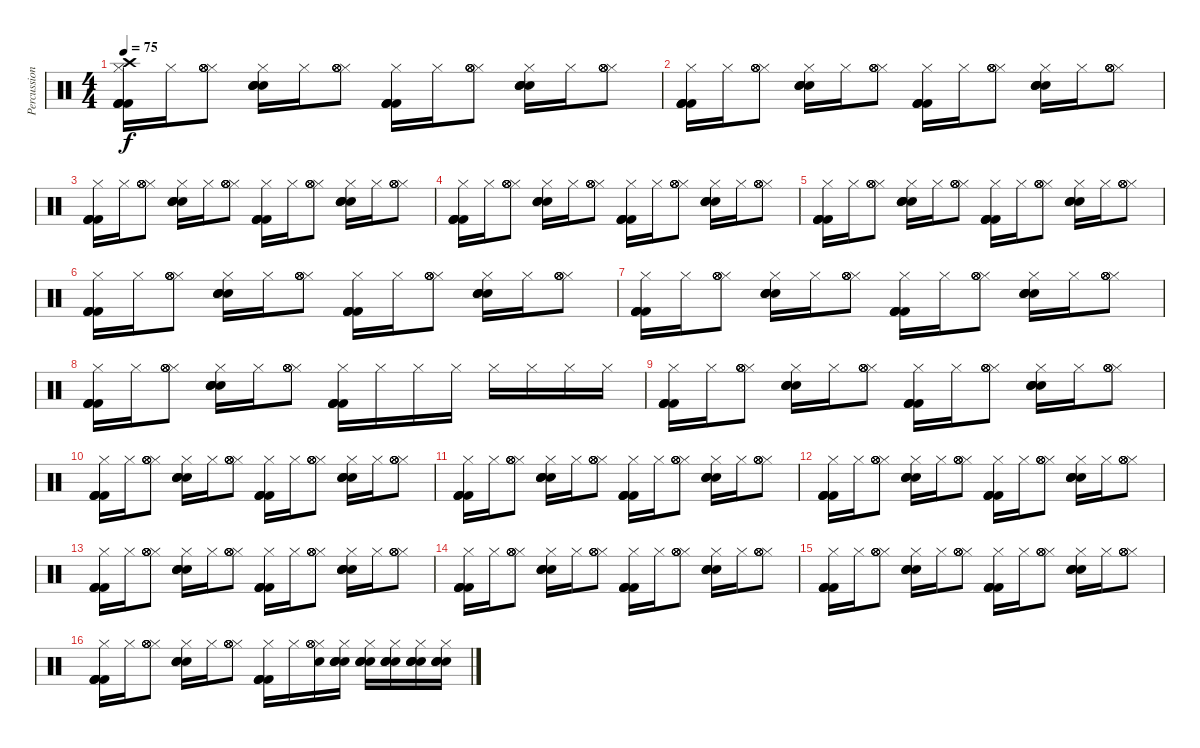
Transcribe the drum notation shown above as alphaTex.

\track ("Percussion" "Percussion") {instrument percussion}
\staff {score}
\articulation defaults
\ts (4 4)
\tempo 75
\clef neutral
\ks c
("Hi-Hat (closed)" "Kick (hit) 2" "Kick (hit) 2" "Kick (hit) 2" "Kick (hit) 2" "Crash high (hit)").16{dy f} "Hi-Hat (closed)".16 ("Hi-Hat (closed)" "Hi-Hat (open)" "Hi-Hat (open)" "Hi-Hat (open)" "Hi-Hat (open)").8 ("Hi-Hat (closed)" "Electric Snare (hit)" "Electric Snare (hit)" "Electric Snare (hit)" "Electric Snare (hit)").16 "Hi-Hat (closed)".16 ("Hi-Hat (closed)" "Hi-Hat (open)" "Hi-Hat (open)" "Hi-Hat (open)" "Hi-Hat (open)").8 ("Hi-Hat (closed)" "Kick (hit) 2" "Kick (hit) 2" "Kick (hit) 2" "Kick (hit) 2").16 "Hi-Hat (closed)".16 ("Hi-Hat (closed)" "Hi-Hat (open)" "Hi-Hat (open)" "Hi-Hat (open)" "Hi-Hat (open)").8 ("Hi-Hat (closed)" "Electric Snare (hit)" "Electric Snare (hit)" "Electric Snare (hit)" "Electric Snare (hit)").16 "Hi-Hat (closed)".16 ("Hi-Hat (closed)" "Hi-Hat (open)" "Hi-Hat (open)" "Hi-Hat (open)" "Hi-Hat (open)").8 |
("Hi-Hat (closed)" "Kick (hit) 2" "Kick (hit) 2" "Kick (hit) 2" "Kick (hit) 2").16 "Hi-Hat (closed)".16 ("Hi-Hat (closed)" "Hi-Hat (open)" "Hi-Hat (open)" "Hi-Hat (open)" "Hi-Hat (open)").8 ("Hi-Hat (closed)" "Electric Snare (hit)" "Electric Snare (hit)" "Electric Snare (hit)" "Electric Snare (hit)").16 "Hi-Hat (closed)".16 ("Hi-Hat (closed)" "Hi-Hat (open)" "Hi-Hat (open)" "Hi-Hat (open)" "Hi-Hat (open)").8 ("Hi-Hat (closed)" "Kick (hit) 2" "Kick (hit) 2" "Kick (hit) 2" "Kick (hit) 2").16 "Hi-Hat (closed)".16 ("Hi-Hat (closed)" "Hi-Hat (open)" "Hi-Hat (open)" "Hi-Hat (open)" "Hi-Hat (open)").8 ("Hi-Hat (closed)" "Electric Snare (hit)" "Electric Snare (hit)" "Electric Snare (hit)" "Electric Snare (hit)").16 "Hi-Hat (closed)".16 ("Hi-Hat (closed)" "Hi-Hat (open)" "Hi-Hat (open)" "Hi-Hat (open)" "Hi-Hat (open)").8 |
("Hi-Hat (closed)" "Kick (hit) 2" "Kick (hit) 2" "Kick (hit) 2" "Kick (hit) 2").16 "Hi-Hat (closed)".16 ("Hi-Hat (closed)" "Hi-Hat (open)" "Hi-Hat (open)" "Hi-Hat (open)" "Hi-Hat (open)").8 ("Hi-Hat (closed)" "Electric Snare (hit)" "Electric Snare (hit)" "Electric Snare (hit)" "Electric Snare (hit)").16 "Hi-Hat (closed)".16 ("Hi-Hat (closed)" "Hi-Hat (open)" "Hi-Hat (open)" "Hi-Hat (open)" "Hi-Hat (open)").8 ("Hi-Hat (closed)" "Kick (hit) 2" "Kick (hit) 2" "Kick (hit) 2" "Kick (hit) 2").16 "Hi-Hat (closed)".16 ("Hi-Hat (closed)" "Hi-Hat (open)" "Hi-Hat (open)" "Hi-Hat (open)" "Hi-Hat (open)").8 ("Hi-Hat (closed)" "Electric Snare (hit)" "Electric Snare (hit)" "Electric Snare (hit)" "Electric Snare (hit)").16 "Hi-Hat (closed)".16 ("Hi-Hat (closed)" "Hi-Hat (open)" "Hi-Hat (open)" "Hi-Hat (open)" "Hi-Hat (open)").8 |
("Hi-Hat (closed)" "Kick (hit) 2" "Kick (hit) 2" "Kick (hit) 2" "Kick (hit) 2").16 "Hi-Hat (closed)".16 ("Hi-Hat (closed)" "Hi-Hat (open)" "Hi-Hat (open)" "Hi-Hat (open)" "Hi-Hat (open)").8 ("Hi-Hat (closed)" "Electric Snare (hit)" "Electric Snare (hit)" "Electric Snare (hit)" "Electric Snare (hit)").16 "Hi-Hat (closed)".16 ("Hi-Hat (closed)" "Hi-Hat (open)" "Hi-Hat (open)" "Hi-Hat (open)" "Hi-Hat (open)").8 ("Hi-Hat (closed)" "Kick (hit) 2" "Kick (hit) 2" "Kick (hit) 2" "Kick (hit) 2").16 "Hi-Hat (closed)".16 ("Hi-Hat (closed)" "Hi-Hat (open)" "Hi-Hat (open)" "Hi-Hat (open)" "Hi-Hat (open)").8 ("Hi-Hat (closed)" "Electric Snare (hit)" "Electric Snare (hit)" "Electric Snare (hit)" "Electric Snare (hit)").16 "Hi-Hat (closed)".16 ("Hi-Hat (closed)" "Hi-Hat (open)" "Hi-Hat (open)" "Hi-Hat (open)" "Hi-Hat (open)").8 |
("Hi-Hat (closed)" "Kick (hit) 2" "Kick (hit) 2" "Kick (hit) 2" "Kick (hit) 2").16 "Hi-Hat (closed)".16 ("Hi-Hat (closed)" "Hi-Hat (open)" "Hi-Hat (open)" "Hi-Hat (open)" "Hi-Hat (open)").8 ("Hi-Hat (closed)" "Electric Snare (hit)" "Electric Snare (hit)" "Electric Snare (hit)" "Electric Snare (hit)").16 "Hi-Hat (closed)".16 ("Hi-Hat (closed)" "Hi-Hat (open)" "Hi-Hat (open)" "Hi-Hat (open)" "Hi-Hat (open)").8 ("Hi-Hat (closed)" "Kick (hit) 2" "Kick (hit) 2" "Kick (hit) 2" "Kick (hit) 2").16 "Hi-Hat (closed)".16 ("Hi-Hat (closed)" "Hi-Hat (open)" "Hi-Hat (open)" "Hi-Hat (open)" "Hi-Hat (open)").8 ("Hi-Hat (closed)" "Electric Snare (hit)" "Electric Snare (hit)" "Electric Snare (hit)" "Electric Snare (hit)").16 "Hi-Hat (closed)".16 ("Hi-Hat (closed)" "Hi-Hat (open)" "Hi-Hat (open)" "Hi-Hat (open)" "Hi-Hat (open)").8 |
("Hi-Hat (closed)" "Kick (hit) 2" "Kick (hit) 2" "Kick (hit) 2" "Kick (hit) 2").16 "Hi-Hat (closed)".16 ("Hi-Hat (closed)" "Hi-Hat (open)" "Hi-Hat (open)" "Hi-Hat (open)" "Hi-Hat (open)").8 ("Hi-Hat (closed)" "Electric Snare (hit)" "Electric Snare (hit)" "Electric Snare (hit)" "Electric Snare (hit)").16 "Hi-Hat (closed)".16 ("Hi-Hat (closed)" "Hi-Hat (open)" "Hi-Hat (open)" "Hi-Hat (open)" "Hi-Hat (open)").8 ("Hi-Hat (closed)" "Kick (hit) 2" "Kick (hit) 2" "Kick (hit) 2" "Kick (hit) 2").16 "Hi-Hat (closed)".16 ("Hi-Hat (closed)" "Hi-Hat (open)" "Hi-Hat (open)" "Hi-Hat (open)" "Hi-Hat (open)").8 ("Hi-Hat (closed)" "Electric Snare (hit)" "Electric Snare (hit)" "Electric Snare (hit)" "Electric Snare (hit)").16 "Hi-Hat (closed)".16 ("Hi-Hat (closed)" "Hi-Hat (open)" "Hi-Hat (open)" "Hi-Hat (open)" "Hi-Hat (open)").8 |
("Hi-Hat (closed)" "Kick (hit) 2" "Kick (hit) 2" "Kick (hit) 2" "Kick (hit) 2").16 "Hi-Hat (closed)".16 ("Hi-Hat (closed)" "Hi-Hat (open)" "Hi-Hat (open)" "Hi-Hat (open)" "Hi-Hat (open)").8 ("Hi-Hat (closed)" "Electric Snare (hit)" "Electric Snare (hit)" "Electric Snare (hit)" "Electric Snare (hit)").16 "Hi-Hat (closed)".16 ("Hi-Hat (closed)" "Hi-Hat (open)" "Hi-Hat (open)" "Hi-Hat (open)" "Hi-Hat (open)").8 ("Hi-Hat (closed)" "Kick (hit) 2" "Kick (hit) 2" "Kick (hit) 2" "Kick (hit) 2").16 "Hi-Hat (closed)".16 ("Hi-Hat (closed)" "Hi-Hat (open)" "Hi-Hat (open)" "Hi-Hat (open)" "Hi-Hat (open)").8 ("Hi-Hat (closed)" "Electric Snare (hit)" "Electric Snare (hit)" "Electric Snare (hit)" "Electric Snare (hit)").16 "Hi-Hat (closed)".16 ("Hi-Hat (closed)" "Hi-Hat (open)" "Hi-Hat (open)" "Hi-Hat (open)" "Hi-Hat (open)").8 |
("Hi-Hat (closed)" "Kick (hit) 2" "Kick (hit) 2" "Kick (hit) 2" "Kick (hit) 2").16 "Hi-Hat (closed)".16 ("Hi-Hat (closed)" "Hi-Hat (open)" "Hi-Hat (open)" "Hi-Hat (open)" "Hi-Hat (open)").8 ("Hi-Hat (closed)" "Electric Snare (hit)" "Electric Snare (hit)" "Electric Snare (hit)" "Electric Snare (hit)").16 "Hi-Hat (closed)".16 ("Hi-Hat (closed)" "Hi-Hat (open)" "Hi-Hat (open)" "Hi-Hat (open)" "Hi-Hat (open)").8 ("Hi-Hat (closed)" "Kick (hit) 2" "Kick (hit) 2" "Kick (hit) 2" "Kick (hit) 2").16 "Hi-Hat (closed)".16 "Hi-Hat (closed)".16 "Hi-Hat (closed)".16 "Hi-Hat (closed)".16 "Hi-Hat (closed)".16 "Hi-Hat (closed)".16 "Hi-Hat (closed)".16 |
("Hi-Hat (closed)" "Kick (hit) 2" "Kick (hit) 2" "Kick (hit) 2" "Kick (hit) 2").16 "Hi-Hat (closed)".16 ("Hi-Hat (closed)" "Hi-Hat (open)" "Hi-Hat (open)" "Hi-Hat (open)" "Hi-Hat (open)").8 ("Hi-Hat (closed)" "Electric Snare (hit)" "Electric Snare (hit)" "Electric Snare (hit)" "Electric Snare (hit)").16 "Hi-Hat (closed)".16 ("Hi-Hat (closed)" "Hi-Hat (open)" "Hi-Hat (open)" "Hi-Hat (open)" "Hi-Hat (open)").8 ("Hi-Hat (closed)" "Kick (hit) 2" "Kick (hit) 2" "Kick (hit) 2" "Kick (hit) 2").16 "Hi-Hat (closed)".16 ("Hi-Hat (closed)" "Hi-Hat (open)" "Hi-Hat (open)" "Hi-Hat (open)" "Hi-Hat (open)").8 ("Hi-Hat (closed)" "Electric Snare (hit)" "Electric Snare (hit)" "Electric Snare (hit)" "Electric Snare (hit)").16 "Hi-Hat (closed)".16 ("Hi-Hat (closed)" "Hi-Hat (open)" "Hi-Hat (open)" "Hi-Hat (open)" "Hi-Hat (open)").8 |
("Hi-Hat (closed)" "Kick (hit) 2" "Kick (hit) 2" "Kick (hit) 2" "Kick (hit) 2").16 "Hi-Hat (closed)".16 ("Hi-Hat (closed)" "Hi-Hat (open)" "Hi-Hat (open)" "Hi-Hat (open)" "Hi-Hat (open)").8 ("Hi-Hat (closed)" "Electric Snare (hit)" "Electric Snare (hit)" "Electric Snare (hit)" "Electric Snare (hit)").16 "Hi-Hat (closed)".16 ("Hi-Hat (closed)" "Hi-Hat (open)" "Hi-Hat (open)" "Hi-Hat (open)" "Hi-Hat (open)").8 ("Hi-Hat (closed)" "Kick (hit) 2" "Kick (hit) 2" "Kick (hit) 2" "Kick (hit) 2").16 "Hi-Hat (closed)".16 ("Hi-Hat (closed)" "Hi-Hat (open)" "Hi-Hat (open)" "Hi-Hat (open)" "Hi-Hat (open)").8 ("Hi-Hat (closed)" "Electric Snare (hit)" "Electric Snare (hit)" "Electric Snare (hit)" "Electric Snare (hit)").16 "Hi-Hat (closed)".16 ("Hi-Hat (closed)" "Hi-Hat (open)" "Hi-Hat (open)" "Hi-Hat (open)" "Hi-Hat (open)").8 |
("Hi-Hat (closed)" "Kick (hit) 2" "Kick (hit) 2" "Kick (hit) 2" "Kick (hit) 2").16 "Hi-Hat (closed)".16 ("Hi-Hat (closed)" "Hi-Hat (open)" "Hi-Hat (open)" "Hi-Hat (open)" "Hi-Hat (open)").8 ("Hi-Hat (closed)" "Electric Snare (hit)" "Electric Snare (hit)" "Electric Snare (hit)" "Electric Snare (hit)").16 "Hi-Hat (closed)".16 ("Hi-Hat (closed)" "Hi-Hat (open)" "Hi-Hat (open)" "Hi-Hat (open)" "Hi-Hat (open)").8 ("Hi-Hat (closed)" "Kick (hit) 2" "Kick (hit) 2" "Kick (hit) 2" "Kick (hit) 2").16 "Hi-Hat (closed)".16 ("Hi-Hat (closed)" "Hi-Hat (open)" "Hi-Hat (open)" "Hi-Hat (open)" "Hi-Hat (open)").8 ("Hi-Hat (closed)" "Electric Snare (hit)" "Electric Snare (hit)" "Electric Snare (hit)" "Electric Snare (hit)").16 "Hi-Hat (closed)".16 ("Hi-Hat (closed)" "Hi-Hat (open)" "Hi-Hat (open)" "Hi-Hat (open)" "Hi-Hat (open)").8 |
("Hi-Hat (closed)" "Kick (hit) 2" "Kick (hit) 2" "Kick (hit) 2" "Kick (hit) 2").16 "Hi-Hat (closed)".16 ("Hi-Hat (closed)" "Hi-Hat (open)" "Hi-Hat (open)" "Hi-Hat (open)" "Hi-Hat (open)").8 ("Hi-Hat (closed)" "Electric Snare (hit)" "Electric Snare (hit)" "Electric Snare (hit)" "Electric Snare (hit)").16 "Hi-Hat (closed)".16 ("Hi-Hat (closed)" "Hi-Hat (open)" "Hi-Hat (open)" "Hi-Hat (open)" "Hi-Hat (open)").8 ("Hi-Hat (closed)" "Kick (hit) 2" "Kick (hit) 2" "Kick (hit) 2" "Kick (hit) 2").16 "Hi-Hat (closed)".16 ("Hi-Hat (closed)" "Hi-Hat (open)" "Hi-Hat (open)" "Hi-Hat (open)" "Hi-Hat (open)").8 ("Hi-Hat (closed)" "Electric Snare (hit)" "Electric Snare (hit)" "Electric Snare (hit)" "Electric Snare (hit)").16 "Hi-Hat (closed)".16 ("Hi-Hat (closed)" "Hi-Hat (open)" "Hi-Hat (open)" "Hi-Hat (open)" "Hi-Hat (open)").8 |
("Hi-Hat (closed)" "Kick (hit) 2" "Kick (hit) 2" "Kick (hit) 2" "Kick (hit) 2").16 "Hi-Hat (closed)".16 ("Hi-Hat (closed)" "Hi-Hat (open)" "Hi-Hat (open)" "Hi-Hat (open)" "Hi-Hat (open)").8 ("Hi-Hat (closed)" "Electric Snare (hit)" "Electric Snare (hit)" "Electric Snare (hit)" "Electric Snare (hit)").16 "Hi-Hat (closed)".16 ("Hi-Hat (closed)" "Hi-Hat (open)" "Hi-Hat (open)" "Hi-Hat (open)" "Hi-Hat (open)").8 ("Hi-Hat (closed)" "Kick (hit) 2" "Kick (hit) 2" "Kick (hit) 2" "Kick (hit) 2").16 "Hi-Hat (closed)".16 ("Hi-Hat (closed)" "Hi-Hat (open)" "Hi-Hat (open)" "Hi-Hat (open)" "Hi-Hat (open)").8 ("Hi-Hat (closed)" "Electric Snare (hit)" "Electric Snare (hit)" "Electric Snare (hit)" "Electric Snare (hit)").16 "Hi-Hat (closed)".16 ("Hi-Hat (closed)" "Hi-Hat (open)" "Hi-Hat (open)" "Hi-Hat (open)" "Hi-Hat (open)").8 |
("Hi-Hat (closed)" "Kick (hit) 2" "Kick (hit) 2" "Kick (hit) 2" "Kick (hit) 2").16 "Hi-Hat (closed)".16 ("Hi-Hat (closed)" "Hi-Hat (open)" "Hi-Hat (open)" "Hi-Hat (open)" "Hi-Hat (open)").8 ("Hi-Hat (closed)" "Electric Snare (hit)" "Electric Snare (hit)" "Electric Snare (hit)" "Electric Snare (hit)").16 "Hi-Hat (closed)".16 ("Hi-Hat (closed)" "Hi-Hat (open)" "Hi-Hat (open)" "Hi-Hat (open)" "Hi-Hat (open)").8 ("Hi-Hat (closed)" "Kick (hit) 2" "Kick (hit) 2" "Kick (hit) 2" "Kick (hit) 2").16 "Hi-Hat (closed)".16 ("Hi-Hat (closed)" "Hi-Hat (open)" "Hi-Hat (open)" "Hi-Hat (open)" "Hi-Hat (open)").8 ("Hi-Hat (closed)" "Electric Snare (hit)" "Electric Snare (hit)" "Electric Snare (hit)" "Electric Snare (hit)").16 "Hi-Hat (closed)".16 ("Hi-Hat (closed)" "Hi-Hat (open)" "Hi-Hat (open)" "Hi-Hat (open)" "Hi-Hat (open)").8 |
("Hi-Hat (closed)" "Kick (hit) 2" "Kick (hit) 2" "Kick (hit) 2" "Kick (hit) 2").16 "Hi-Hat (closed)".16 ("Hi-Hat (closed)" "Hi-Hat (open)" "Hi-Hat (open)" "Hi-Hat (open)" "Hi-Hat (open)").8 ("Hi-Hat (closed)" "Electric Snare (hit)" "Electric Snare (hit)" "Electric Snare (hit)" "Electric Snare (hit)").16 "Hi-Hat (closed)".16 ("Hi-Hat (closed)" "Hi-Hat (open)" "Hi-Hat (open)" "Hi-Hat (open)" "Hi-Hat (open)").8 ("Hi-Hat (closed)" "Kick (hit) 2" "Kick (hit) 2" "Kick (hit) 2" "Kick (hit) 2").16 "Hi-Hat (closed)".16 ("Hi-Hat (closed)" "Hi-Hat (open)" "Hi-Hat (open)" "Hi-Hat (open)" "Hi-Hat (open)").8 ("Hi-Hat (closed)" "Electric Snare (hit)" "Electric Snare (hit)" "Electric Snare (hit)" "Electric Snare (hit)").16 "Hi-Hat (closed)".16 ("Hi-Hat (closed)" "Hi-Hat (open)" "Hi-Hat (open)" "Hi-Hat (open)" "Hi-Hat (open)").8 |
("Hi-Hat (closed)" "Kick (hit) 2" "Kick (hit) 2" "Kick (hit) 2" "Kick (hit) 2").16 "Hi-Hat (closed)".16 ("Hi-Hat (closed)" "Hi-Hat (open)" "Hi-Hat (open)" "Hi-Hat (open)" "Hi-Hat (open)").8 ("Hi-Hat (closed)" "Electric Snare (hit)" "Electric Snare (hit)" "Electric Snare (hit)" "Electric Snare (hit)").16 "Hi-Hat (closed)".16 ("Hi-Hat (closed)" "Hi-Hat (open)" "Hi-Hat (open)" "Hi-Hat (open)" "Hi-Hat (open)").8 ("Hi-Hat (closed)" "Kick (hit) 2" "Kick (hit) 2" "Kick (hit) 2" "Kick (hit) 2").16 "Hi-Hat (closed)".16 ("Hi-Hat (closed)" "Electric Snare (hit)" "Hi-Hat (open)" "Hi-Hat (open)" "Hi-Hat (open)").16 ("Hi-Hat (closed)" "Electric Snare (hit)" "Electric Snare (hit)" "Electric Snare (hit)" "Electric Snare (hit)").16 ("Hi-Hat (closed)" "Electric Snare (hit)" "Electric Snare (hit)" "Electric Snare (hit)" "Electric Snare (hit)").16 ("Hi-Hat (closed)" "Electric Snare (hit)" "Electric Snare (hit)" "Electric Snare (hit)" "Electric Snare (hit)").16 ("Hi-Hat (closed)" "Electric Snare (hit)" "Electric Snare (hit)" "Electric Snare (hit)" "Electric Snare (hit)").16 ("Hi-Hat (closed)" "Electric Snare (hit)" "Electric Snare (hit)" "Electric Snare (hit)" "Electric Snare (hit)").16
